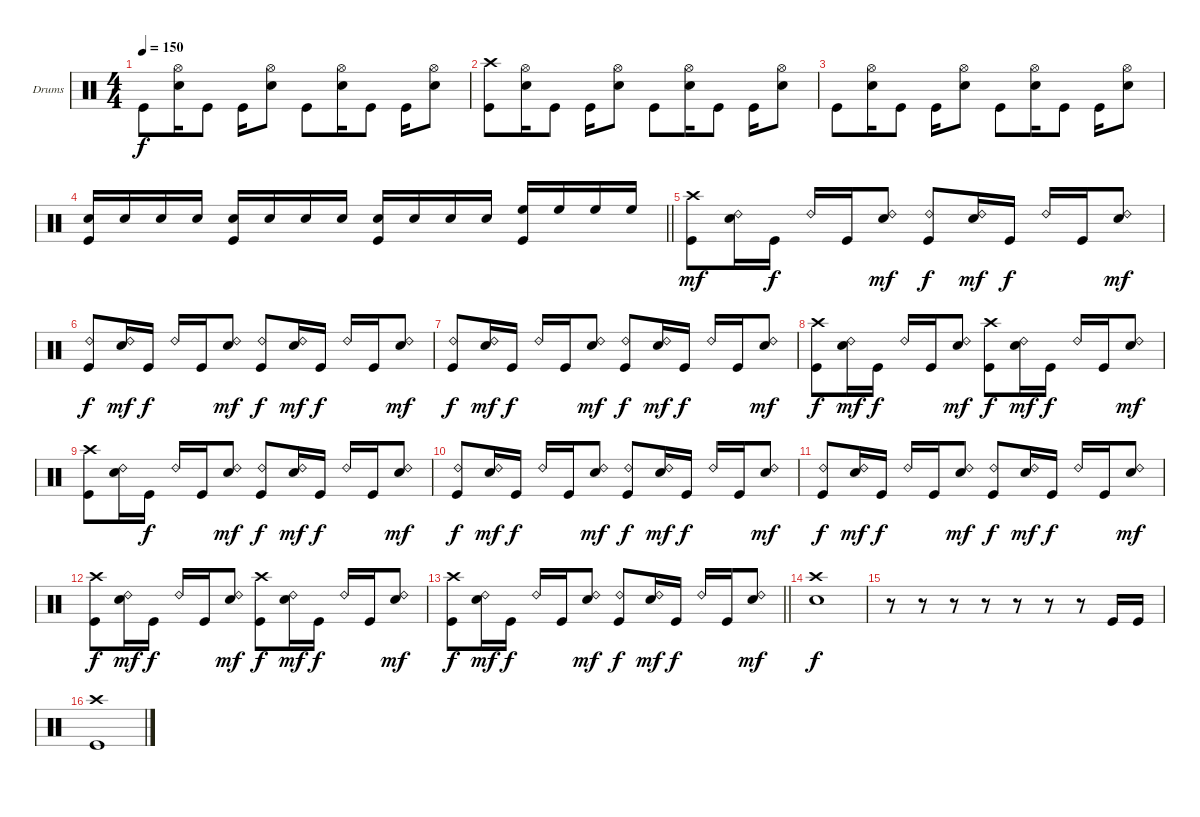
\bracketExtendMode nobrackets
\firstSystemTrackNameOrientation horizontal
\otherSystemsTrackNameOrientation horizontal
\track ("Drumkit" "Drums") {instrument percussion}
\staff {score}
\articulation defaults
\ts (4 4)
\tempo 150
\clef neutral
\ks c "Kick (hit)".8{dy f}
("Hi-Hat (open)" "Snare (hit) 2").16 "Kick (hit)".8 "Kick (hit)".16 ("Hi-Hat (open)" "Snare (hit) 2").8 "Kick (hit)".8 ("Hi-Hat (open)" "Snare (hit) 2").16 "Kick (hit)".8 "Kick (hit)".16 ("Hi-Hat (open)" "Snare (hit) 2").8 |
("Crash high (hit)" "Kick (hit)").8 ("Hi-Hat (open)" "Snare (hit) 2").16 "Kick (hit)".8 "Kick (hit)".16 ("Hi-Hat (open)" "Snare (hit) 2").8 "Kick (hit)".8 ("Hi-Hat (open)" "Snare (hit) 2").16 "Kick (hit)".8 "Kick (hit)".16 ("Hi-Hat (open)" "Snare (hit) 2").8 |
"Kick (hit)".8 ("Hi-Hat (open)" "Snare (hit) 2").16 "Kick (hit)".8 "Kick (hit)".16 ("Hi-Hat (open)" "Snare (hit) 2").8 "Kick (hit)".8 ("Hi-Hat (open)" "Snare (hit) 2").16 "Kick (hit)".8 "Kick (hit)".16 ("Hi-Hat (open)" "Snare (hit) 2").8 |
\barLineRight lightlight
("Snare (hit) 2" "Kick (hit)").16 "Snare (hit) 2".16 "Snare (hit) 2".16 "Snare (hit) 2".16 ("Snare (hit) 2" "Kick (hit)").16 "Snare (hit) 2".16 "Snare (hit) 2".16 "Snare (hit) 2".16 ("Snare (hit) 2" "Kick (hit)").16 "Snare (hit) 2".16 "Snare (hit) 2".16 "Snare (hit) 2".16 ("High Floor Tom (hit)" "Kick (hit)").16 "High Floor Tom (hit)".16 "High Floor Tom (hit)".16 "High Floor Tom (hit)".16 |
("Crash high (hit)" "Kick (hit)").8{dy mf} ("Ride (bell) 2" "Snare (hit) 2").16 "Kick (hit)".16{dy f} "Ride (bell) 2".16 "Kick (hit)".16 ("Ride (bell) 2" "Snare (hit) 2").8{dy mf} ("Ride (bell) 2" "Kick (hit)").8{dy f} ("Ride (bell) 2" "Snare (hit) 2").16{dy mf} "Kick (hit)".16{dy f} "Ride (bell) 2".16 "Kick (hit)".16 ("Ride (bell) 2" "Snare (hit) 2").8{dy mf} |
("Ride (bell) 2" "Kick (hit)").8{dy f} ("Ride (bell) 2" "Snare (hit) 2").16{dy mf} "Kick (hit)".16{dy f} "Ride (bell) 2".16 "Kick (hit)".16 ("Ride (bell) 2" "Snare (hit) 2").8{dy mf} ("Ride (bell) 2" "Kick (hit)").8{dy f} ("Ride (bell) 2" "Snare (hit) 2").16{dy mf} "Kick (hit)".16{dy f} "Ride (bell) 2".16 "Kick (hit)".16 ("Ride (bell) 2" "Snare (hit) 2").8{dy mf} |
("Ride (bell) 2" "Kick (hit)").8{dy f} ("Ride (bell) 2" "Snare (hit) 2").16{dy mf} "Kick (hit)".16{dy f} "Ride (bell) 2".16 "Kick (hit)".16 ("Ride (bell) 2" "Snare (hit) 2").8{dy mf} ("Ride (bell) 2" "Kick (hit)").8{dy f} ("Ride (bell) 2" "Snare (hit) 2").16{dy mf} "Kick (hit)".16{dy f} "Ride (bell) 2".16 "Kick (hit)".16 ("Ride (bell) 2" "Snare (hit) 2").8{dy mf} |
("Crash high (hit)" "Kick (hit)").8{dy f} ("Ride (bell) 2" "Snare (hit) 2").16{dy mf} "Kick (hit)".16{dy f} "Ride (bell) 2".16 "Kick (hit)".16 ("Ride (bell) 2" "Snare (hit) 2").8{dy mf} ("Crash high (hit)" "Kick (hit)").8{dy f} ("Ride (bell) 2" "Snare (hit) 2").16{dy mf} "Kick (hit)".16{dy f} "Ride (bell) 2".16 "Kick (hit)".16 ("Ride (bell) 2" "Snare (hit) 2").8{dy mf} |
("Crash high (hit)" "Kick (hit)").8 ("Ride (bell) 2" "Snare (hit) 2").16 "Kick (hit)".16{dy f} "Ride (bell) 2".16 "Kick (hit)".16 ("Ride (bell) 2" "Snare (hit) 2").8{dy mf} ("Ride (bell) 2" "Kick (hit)").8{dy f} ("Ride (bell) 2" "Snare (hit) 2").16{dy mf} "Kick (hit)".16{dy f} "Ride (bell) 2".16 "Kick (hit)".16 ("Ride (bell) 2" "Snare (hit) 2").8{dy mf} |
("Ride (bell) 2" "Kick (hit)").8{dy f} ("Ride (bell) 2" "Snare (hit) 2").16{dy mf} "Kick (hit)".16{dy f} "Ride (bell) 2".16 "Kick (hit)".16 ("Ride (bell) 2" "Snare (hit) 2").8{dy mf} ("Ride (bell) 2" "Kick (hit)").8{dy f} ("Ride (bell) 2" "Snare (hit) 2").16{dy mf} "Kick (hit)".16{dy f} "Ride (bell) 2".16 "Kick (hit)".16 ("Ride (bell) 2" "Snare (hit) 2").8{dy mf} |
("Ride (bell) 2" "Kick (hit)").8{dy f} ("Ride (bell) 2" "Snare (hit) 2").16{dy mf} "Kick (hit)".16{dy f} "Ride (bell) 2".16 "Kick (hit)".16 ("Ride (bell) 2" "Snare (hit) 2").8{dy mf} ("Ride (bell) 2" "Kick (hit)").8{dy f} ("Ride (bell) 2" "Snare (hit) 2").16{dy mf} "Kick (hit)".16{dy f} "Ride (bell) 2".16 "Kick (hit)".16 ("Ride (bell) 2" "Snare (hit) 2").8{dy mf} |
("Crash high (hit)" "Kick (hit)").8{dy f} ("Ride (bell) 2" "Snare (hit) 2").16{dy mf} "Kick (hit)".16{dy f} "Ride (bell) 2".16 "Kick (hit)".16 ("Ride (bell) 2" "Snare (hit) 2").8{dy mf} ("Crash high (hit)" "Kick (hit)").8{dy f} ("Ride (bell) 2" "Snare (hit) 2").16{dy mf} "Kick (hit)".16{dy f} "Ride (bell) 2".16 "Kick (hit)".16 ("Ride (bell) 2" "Snare (hit) 2").8{dy mf} |
\barLineRight lightlight
("Crash high (hit)" "Kick (hit)").8{dy f} ("Ride (bell) 2" "Snare (hit) 2").16{dy mf} "Kick (hit)".16{dy f} "Ride (bell) 2".16 "Kick (hit)".16 ("Ride (bell) 2" "Snare (hit) 2").8{dy mf} ("Ride (bell) 2" "Kick (hit)").8{dy f} ("Ride (bell) 2" "Snare (hit) 2").16{dy mf} "Kick (hit)".16{dy f} "Ride (bell) 2".16 "Kick (hit)".16 ("Ride (bell) 2" "Snare (hit) 2").8{dy mf} |
("Crash high (hit)" "Snare (hit) 2").1{dy f} |
r.8 r.8 r.8 r.8 r.8 r.8 r.8 "Kick (hit)".16 "Kick (hit)".16 |
("Crash high (hit)" "Kick (hit)").1
